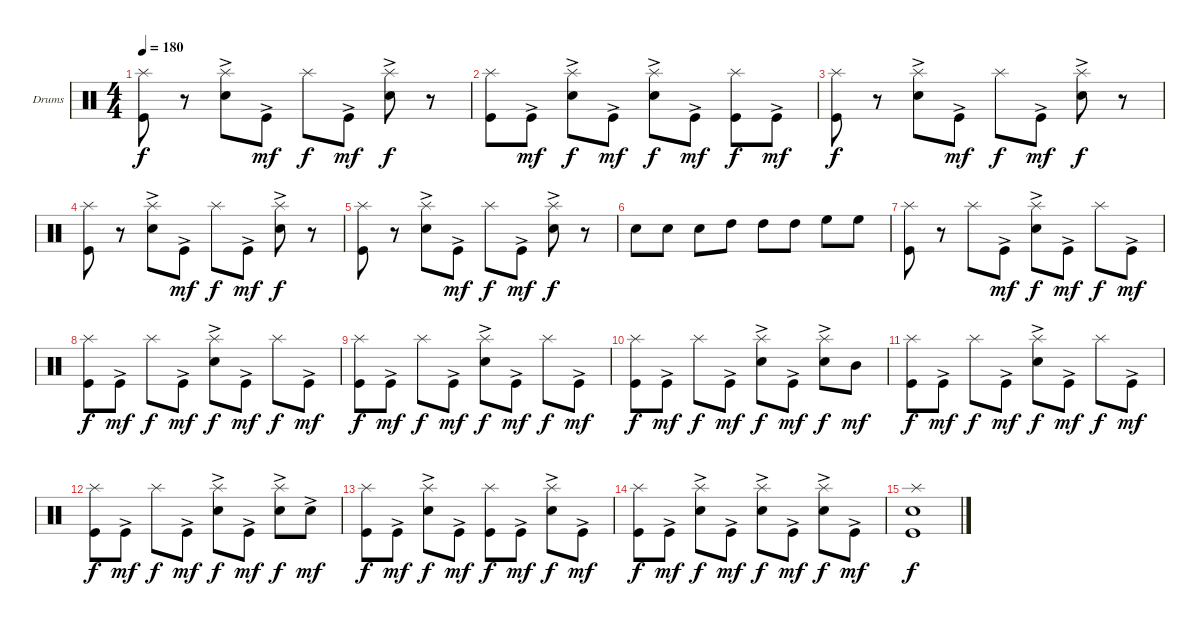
\defaultSystemsLayout 4
\bracketExtendMode groupsimilarinstruments
\firstSystemTrackNameOrientation horizontal
\otherSystemsTrackNameOrientation horizontal
\track ("Drumkit" "Drums") {instrument percussion}
\staff {score}
\articulation defaults
\ts (4 4)
\tempo 180
\clef neutral
\ks c
("Kick (hit)" "Splash (hit)").8{dy f} r.8 ("Snare (hit) 2"{ac} "Splash (hit)").8 "Kick (hit)"{ac}.8{dy mf} "Splash (hit)".8{dy f} "Kick (hit)"{ac}.8{dy mf} ("Snare (hit) 2"{ac} "Splash (hit)").8{dy f} r.8 |
("Kick (hit)" "Splash (hit)").8 "Kick (hit)"{ac}.8{dy mf} ("Snare (hit) 2"{ac} "Splash (hit)").8{dy f} "Kick (hit)"{ac}.8{dy mf} ("Snare (hit) 2"{ac} "Splash (hit)").8{dy f} "Kick (hit)"{ac}.8{dy mf} ("Kick (hit)" "Splash (hit)").8{dy f} "Kick (hit)"{ac}.8{dy mf} |
("Kick (hit)" "Splash (hit)").8{dy f} r.8 ("Snare (hit) 2"{ac} "Splash (hit)").8 "Kick (hit)"{ac}.8{dy mf} "Splash (hit)".8{dy f} "Kick (hit)"{ac}.8{dy mf} ("Snare (hit) 2"{ac} "Splash (hit)").8{dy f} r.8 |
("Kick (hit)" "Splash (hit)").8 r.8 ("Snare (hit) 2"{ac} "Splash (hit)").8 "Kick (hit)"{ac}.8{dy mf} "Splash (hit)".8{dy f} "Kick (hit)"{ac}.8{dy mf} ("Snare (hit) 2"{ac} "Splash (hit)").8{dy f} r.8 |
("Kick (hit)" "Splash (hit)").8 r.8 ("Snare (hit) 2"{ac} "Splash (hit)").8 "Kick (hit)"{ac}.8{dy mf} "Splash (hit)".8{dy f} "Kick (hit)"{ac}.8{dy mf} ("Snare (hit) 2"{ac} "Splash (hit)").8{dy f} r.8 |
"Snare (hit) 2".8 "Snare (hit) 2".8 "Snare (hit) 2".8 "High Tom (hit)".8 "High Tom (hit)".8 "High Tom (hit)".8 "High Floor Tom (hit)".8 "High Floor Tom (hit)".8 |
("Kick (hit)" "Splash (hit)").8 r.8 "Splash (hit)".8 "Kick (hit)"{ac}.8{dy mf} ("Snare (hit) 2"{ac} "Splash (hit)").8{dy f} "Kick (hit)"{ac}.8{dy mf} "Splash (hit)".8{dy f} "Kick (hit)"{ac}.8{dy mf} |
("Kick (hit)" "Splash (hit)").8{dy f} "Kick (hit)"{ac}.8{dy mf} "Splash (hit)".8{dy f} "Kick (hit)"{ac}.8{dy mf} ("Snare (hit) 2"{ac} "Splash (hit)").8{dy f} "Kick (hit)"{ac}.8{dy mf} "Splash (hit)".8{dy f} "Kick (hit)"{ac}.8{dy mf} |
("Kick (hit)" "Splash (hit)").8{dy f} "Kick (hit)"{ac}.8{dy mf} "Splash (hit)".8{dy f} "Kick (hit)"{ac}.8{dy mf} ("Snare (hit) 2"{ac} "Splash (hit)").8{dy f} "Kick (hit)"{ac}.8{dy mf} "Splash (hit)".8{dy f} "Kick (hit)"{ac}.8{dy mf} |
("Kick (hit)" "Splash (hit)").8{dy f} "Kick (hit)"{ac}.8{dy mf} "Splash (hit)".8{dy f} "Kick (hit)"{ac}.8{dy mf} ("Snare (hit) 2"{ac} "Splash (hit)").8{dy f} "Kick (hit)"{ac}.8{dy mf} ("Snare (hit) 2"{ac} "Splash (hit)").8{dy f} "Mid Tom (hit)".8{dy mf} |
("Kick (hit)" "Splash (hit)").8{dy f} "Kick (hit)"{ac}.8{dy mf} "Splash (hit)".8{dy f} "Kick (hit)"{ac}.8{dy mf} ("Snare (hit) 2"{ac} "Splash (hit)").8{dy f} "Kick (hit)"{ac}.8{dy mf} "Splash (hit)".8{dy f} "Kick (hit)"{ac}.8{dy mf} |
("Kick (hit)" "Splash (hit)").8{dy f} "Kick (hit)"{ac}.8{dy mf} "Splash (hit)".8{dy f} "Kick (hit)"{ac}.8{dy mf} ("Snare (hit) 2"{ac} "Splash (hit)").8{dy f} "Kick (hit)"{ac}.8{dy mf} ("Splash (hit)" "Snare (hit) 2"{ac}).8{dy f} "Snare (hit) 2"{ac}.8{dy mf} |
("Kick (hit)" "Splash (hit)").8{dy f} "Kick (hit)"{ac}.8{dy mf} ("Snare (hit) 2"{ac} "Splash (hit)").8{dy f} "Kick (hit)"{ac}.8{dy mf} ("Kick (hit)" "Splash (hit)").8{dy f} "Kick (hit)"{ac}.8{dy mf} ("Snare (hit) 2"{ac} "Splash (hit)").8{dy f} "Kick (hit)"{ac}.8{dy mf} |
("Splash (hit)" "Kick (hit)").8{dy f} "Kick (hit)"{ac}.8{dy mf} ("Splash (hit)" "Snare (hit) 2"{ac}).8{dy f} "Kick (hit)"{ac}.8{dy mf} ("Splash (hit)" "Snare (hit) 2"{ac}).8{dy f} "Kick (hit)"{ac}.8{dy mf} ("Splash (hit)" "Snare (hit) 2"{ac}).8{dy f} "Kick (hit)"{ac}.8{dy mf} |
("Kick (hit)" "Snare (hit) 2" "Splash (hit)").1{dy f}
